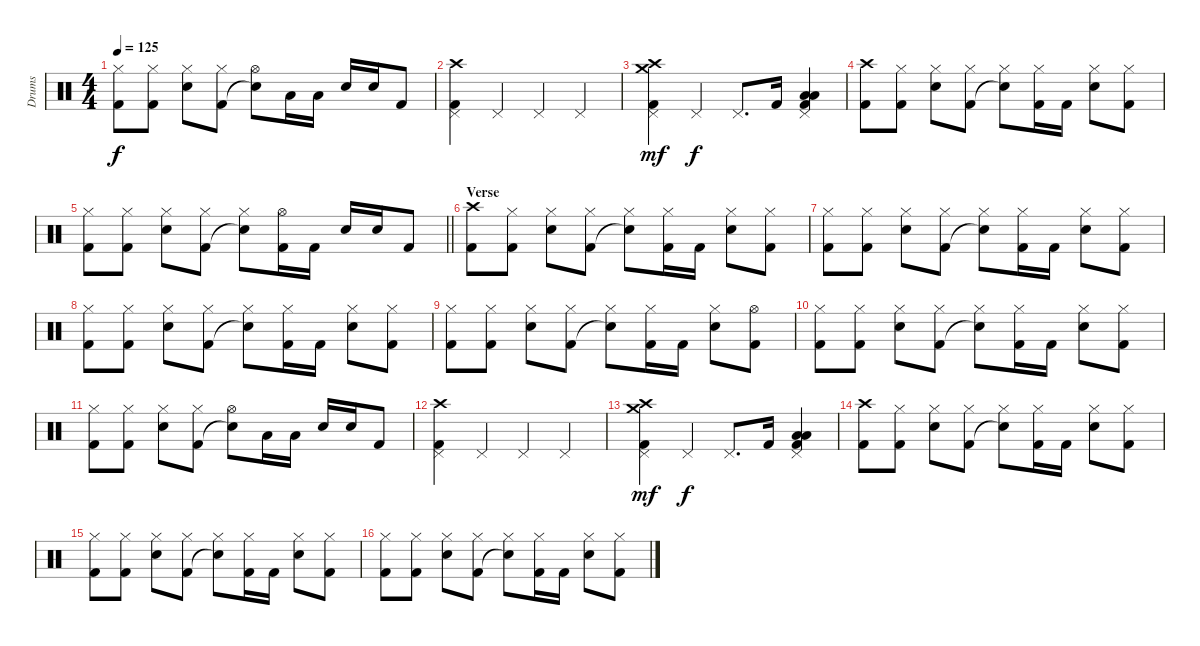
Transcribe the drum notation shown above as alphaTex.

\track ("Drums" "Drums") {instrument percussion}
\staff {score}
\articulation defaults
\ts (4 4)
\tempo 125
\clef neutral
\ks c
("Hi-Hat (closed)" "Kick (hit) 2").8{dy f} ("Hi-Hat (closed)" "Kick (hit) 2").8 ("Hi-Hat (closed)" "Electric Snare (hit)").8 ("Hi-Hat (closed)" "Kick (hit) 2").8 ("Hi-Hat (open)" "Snare (hit)"{t}).8 "Low Tom (hit)".16 "Low Floor Tom (hit)".16 "Electric Snare (hit)".16 "Electric Snare (hit)".16 "Kick (hit) 2".8 |
("Pedal Hi-Hat (hit)" "Crash high (hit)" "Kick (hit) 2").4 "Pedal Hi-Hat (hit)".4 "Pedal Hi-Hat (hit)".4 "Pedal Hi-Hat (hit)".4 |
("Pedal Hi-Hat (hit)" "Crash high (hit)" "Crash medium (hit)" "Kick (hit) 2").4{dy mf} "Pedal Hi-Hat (hit)".4{dy f} "Pedal Hi-Hat (hit)".8{d} "Kick (hit) 2".16 ("Pedal Hi-Hat (hit)" "Low Tom (hit)" "Low Floor Tom (hit)" "Kick (hit) 2").4 |
("Crash high (hit)" "Kick (hit) 2").8 ("Hi-Hat (closed)" "Kick (hit) 2").8 ("Hi-Hat (closed)" "Electric Snare (hit)").8 ("Hi-Hat (closed)" "Kick (hit) 2").8 ("Hi-Hat (closed)" "Snare (hit)"{t}).8 ("Hi-Hat (closed)" "Kick (hit) 2").16 "Kick (hit) 2".16 ("Hi-Hat (closed)" "Electric Snare (hit)").8 ("Hi-Hat (closed)" "Kick (hit) 2").8 |
\barLineRight lightlight
("Hi-Hat (closed)" "Kick (hit) 2").8 ("Hi-Hat (closed)" "Kick (hit) 2").8 ("Hi-Hat (closed)" "Electric Snare (hit)").8 ("Hi-Hat (closed)" "Kick (hit) 2").8 ("Hi-Hat (closed)" "Snare (hit)"{t}).8 ("Hi-Hat (open)" "Kick (hit) 2").16 "Kick (hit) 2".16 "Electric Snare (hit)".16 "Electric Snare (hit)".16 "Kick (hit) 2".8 |
\section ("" "Verse")
("Crash high (hit)" "Kick (hit) 2").8 ("Hi-Hat (closed)" "Kick (hit) 2").8 ("Hi-Hat (closed)" "Electric Snare (hit)").8 ("Hi-Hat (closed)" "Kick (hit) 2").8 ("Hi-Hat (closed)" "Snare (hit)"{t}).8 ("Hi-Hat (closed)" "Kick (hit) 2").16 "Kick (hit) 2".16 ("Hi-Hat (closed)" "Electric Snare (hit)").8 ("Hi-Hat (closed)" "Kick (hit) 2").8 |
("Hi-Hat (closed)" "Kick (hit) 2").8 ("Hi-Hat (closed)" "Kick (hit) 2").8 ("Hi-Hat (closed)" "Electric Snare (hit)").8 ("Hi-Hat (closed)" "Kick (hit) 2").8 ("Hi-Hat (closed)" "Snare (hit)"{t}).8 ("Hi-Hat (closed)" "Kick (hit) 2").16 "Kick (hit) 2".16 ("Hi-Hat (closed)" "Electric Snare (hit)").8 ("Hi-Hat (closed)" "Kick (hit) 2").8 |
("Hi-Hat (closed)" "Kick (hit) 2").8 ("Hi-Hat (closed)" "Kick (hit) 2").8 ("Hi-Hat (closed)" "Electric Snare (hit)").8 ("Hi-Hat (closed)" "Kick (hit) 2").8 ("Hi-Hat (closed)" "Snare (hit)"{t}).8 ("Hi-Hat (closed)" "Kick (hit) 2").16 "Kick (hit) 2".16 ("Hi-Hat (closed)" "Electric Snare (hit)").8 ("Hi-Hat (closed)" "Kick (hit) 2").8 |
("Hi-Hat (closed)" "Kick (hit) 2").8 ("Hi-Hat (closed)" "Kick (hit) 2").8 ("Hi-Hat (closed)" "Electric Snare (hit)").8 ("Hi-Hat (closed)" "Kick (hit) 2").8 ("Hi-Hat (closed)" "Snare (hit)"{t}).8 ("Hi-Hat (closed)" "Kick (hit) 2").16 "Kick (hit) 2".16 ("Hi-Hat (closed)" "Electric Snare (hit)").8 ("Hi-Hat (open)" "Kick (hit) 2").8 |
("Hi-Hat (closed)" "Kick (hit) 2").8 ("Hi-Hat (closed)" "Kick (hit) 2").8 ("Hi-Hat (closed)" "Electric Snare (hit)").8 ("Hi-Hat (closed)" "Kick (hit) 2").8 ("Hi-Hat (closed)" "Snare (hit)"{t}).8 ("Hi-Hat (closed)" "Kick (hit) 2").16 "Kick (hit) 2".16 ("Hi-Hat (closed)" "Electric Snare (hit)").8 ("Hi-Hat (closed)" "Kick (hit) 2").8 |
("Hi-Hat (closed)" "Kick (hit) 2").8 ("Hi-Hat (closed)" "Kick (hit) 2").8 ("Hi-Hat (closed)" "Electric Snare (hit)").8 ("Hi-Hat (closed)" "Kick (hit) 2").8 ("Hi-Hat (open)" "Snare (hit)"{t}).8 "Low Tom (hit)".16 "Low Floor Tom (hit)".16 "Electric Snare (hit)".16 "Electric Snare (hit)".16 "Kick (hit) 2".8 |
("Pedal Hi-Hat (hit)" "Crash high (hit)" "Kick (hit) 2").4 "Pedal Hi-Hat (hit)".4 "Pedal Hi-Hat (hit)".4 "Pedal Hi-Hat (hit)".4 |
("Pedal Hi-Hat (hit)" "Crash high (hit)" "Crash medium (hit)" "Kick (hit) 2").4{dy mf} "Pedal Hi-Hat (hit)".4{dy f} "Pedal Hi-Hat (hit)".8{d} "Kick (hit) 2".16 ("Pedal Hi-Hat (hit)" "Low Tom (hit)" "Low Floor Tom (hit)" "Kick (hit) 2").4 |
("Crash high (hit)" "Kick (hit) 2").8 ("Hi-Hat (closed)" "Kick (hit) 2").8 ("Hi-Hat (closed)" "Electric Snare (hit)").8 ("Hi-Hat (closed)" "Kick (hit) 2").8 ("Hi-Hat (closed)" "Snare (hit)"{t}).8 ("Hi-Hat (closed)" "Kick (hit) 2").16 "Kick (hit) 2".16 ("Hi-Hat (closed)" "Electric Snare (hit)").8 ("Hi-Hat (closed)" "Kick (hit) 2").8 |
("Hi-Hat (closed)" "Kick (hit) 2").8 ("Hi-Hat (closed)" "Kick (hit) 2").8 ("Hi-Hat (closed)" "Electric Snare (hit)").8 ("Hi-Hat (closed)" "Kick (hit) 2").8 ("Hi-Hat (closed)" "Snare (hit)"{t}).8 ("Hi-Hat (closed)" "Kick (hit) 2").16 "Kick (hit) 2".16 ("Hi-Hat (closed)" "Electric Snare (hit)").8 ("Hi-Hat (closed)" "Kick (hit) 2").8 |
("Hi-Hat (closed)" "Kick (hit) 2").8 ("Hi-Hat (closed)" "Kick (hit) 2").8 ("Hi-Hat (closed)" "Electric Snare (hit)").8 ("Hi-Hat (closed)" "Kick (hit) 2").8 ("Hi-Hat (closed)" "Snare (hit)"{t}).8 ("Hi-Hat (closed)" "Kick (hit) 2").16 "Kick (hit) 2".16 ("Hi-Hat (closed)" "Electric Snare (hit)").8 ("Hi-Hat (closed)" "Kick (hit) 2").8
